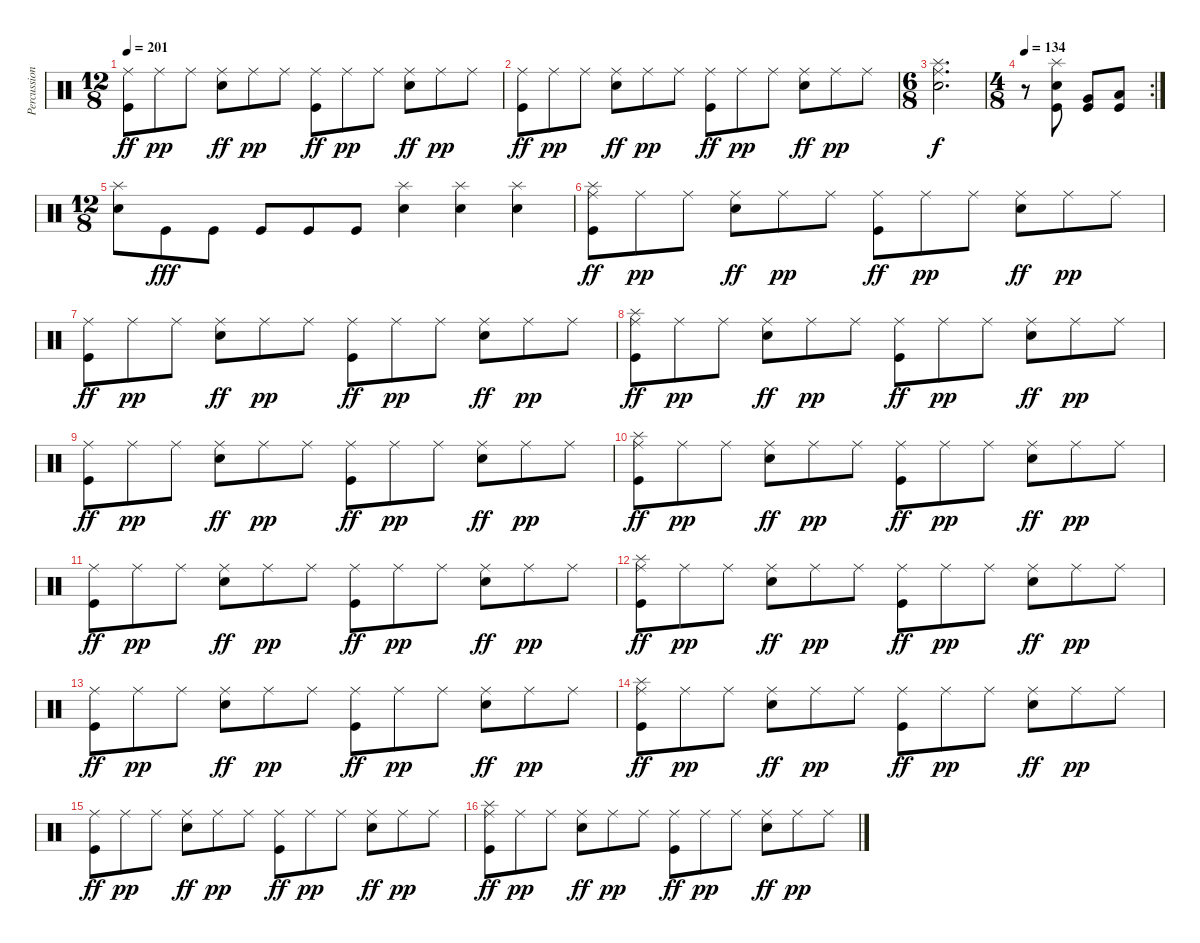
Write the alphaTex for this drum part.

\track ("Percussion" "Percussion") {instrument percussion}
\staff {score}
\articulation defaults
\ts (12 8)
\tempo 201
\clef neutral
\ks c
("Ride (middle)" "Kick (hit)").8{dy ff} "Ride (middle)".8{dy pp} "Ride (middle)".8 ("Ride (middle)" "Snare (hit) 2").8{dy ff} "Ride (middle)".8{dy pp} "Ride (middle)".8 ("Ride (middle)" "Kick (hit)").8{dy ff} "Ride (middle)".8{dy pp} "Ride (middle)".8 ("Ride (middle)" "Snare (hit) 2").8{dy ff} "Ride (middle)".8{dy pp} "Ride (middle)".8 |
("Ride (middle)" "Kick (hit)").8{dy ff} "Ride (middle)".8{dy pp} "Ride (middle)".8 ("Ride (middle)" "Snare (hit) 2").8{dy ff} "Ride (middle)".8{dy pp} "Ride (middle)".8 ("Ride (middle)" "Kick (hit)").8{dy ff} "Ride (middle)".8{dy pp} "Ride (middle)".8 ("Ride (middle)" "Snare (hit) 2").8{dy ff} "Ride (middle)".8{dy pp} "Ride (middle)".8 |
\ts (6 8)
("Ride (middle)" "Splash (hit)" "Snare (hit) 2").2{d dy f} |
\rc 2
\ts (4 8)
\tempo 134
r.8 ("Splash (hit)" "Snare (hit) 2" "Kick (hit)").8 ("Very Low Tom (hit)" "Kick (hit)").8 ("Low Floor Tom (hit)" "Kick (hit)").8 |
\ts (12 8)
("Splash (hit)" "Snare (hit) 2").8 "Kick (hit)".8{dy fff} "Kick (hit)".8 "Kick (hit)".8 "Kick (hit)".8 "Kick (hit)".8 ("Splash (hit)" "Snare (hit) 2").4 ("Splash (hit)" "Snare (hit) 2").4 ("Splash (hit)" "Snare (hit) 2").4 |
("Splash (hit)" "Ride (middle)" "Kick (hit)").8{dy ff} "Ride (middle)".8{dy pp} "Ride (middle)".8 ("Ride (middle)" "Snare (hit) 2").8{dy ff} "Ride (middle)".8{dy pp} "Ride (middle)".8 ("Ride (middle)" "Kick (hit)").8{dy ff} "Ride (middle)".8{dy pp} "Ride (middle)".8 ("Ride (middle)" "Snare (hit) 2").8{dy ff} "Ride (middle)".8{dy pp} "Ride (middle)".8 |
("Ride (middle)" "Kick (hit)").8{dy ff} "Ride (middle)".8{dy pp} "Ride (middle)".8 ("Ride (middle)" "Snare (hit) 2").8{dy ff} "Ride (middle)".8{dy pp} "Ride (middle)".8 ("Ride (middle)" "Kick (hit)").8{dy ff} "Ride (middle)".8{dy pp} "Ride (middle)".8 ("Ride (middle)" "Snare (hit) 2").8{dy ff} "Ride (middle)".8{dy pp} "Ride (middle)".8 |
("Splash (hit)" "Ride (middle)" "Kick (hit)").8{dy ff} "Ride (middle)".8{dy pp} "Ride (middle)".8 ("Ride (middle)" "Snare (hit) 2").8{dy ff} "Ride (middle)".8{dy pp} "Ride (middle)".8 ("Ride (middle)" "Kick (hit)").8{dy ff} "Ride (middle)".8{dy pp} "Ride (middle)".8 ("Ride (middle)" "Snare (hit) 2").8{dy ff} "Ride (middle)".8{dy pp} "Ride (middle)".8 |
("Ride (middle)" "Kick (hit)").8{dy ff} "Ride (middle)".8{dy pp} "Ride (middle)".8 ("Ride (middle)" "Snare (hit) 2").8{dy ff} "Ride (middle)".8{dy pp} "Ride (middle)".8 ("Ride (middle)" "Kick (hit)").8{dy ff} "Ride (middle)".8{dy pp} "Ride (middle)".8 ("Ride (middle)" "Snare (hit) 2").8{dy ff} "Ride (middle)".8{dy pp} "Ride (middle)".8 |
("Splash (hit)" "Ride (middle)" "Kick (hit)").8{dy ff} "Ride (middle)".8{dy pp} "Ride (middle)".8 ("Ride (middle)" "Snare (hit) 2").8{dy ff} "Ride (middle)".8{dy pp} "Ride (middle)".8 ("Ride (middle)" "Kick (hit)").8{dy ff} "Ride (middle)".8{dy pp} "Ride (middle)".8 ("Ride (middle)" "Snare (hit) 2").8{dy ff} "Ride (middle)".8{dy pp} "Ride (middle)".8 |
("Ride (middle)" "Kick (hit)").8{dy ff} "Ride (middle)".8{dy pp} "Ride (middle)".8 ("Ride (middle)" "Snare (hit) 2").8{dy ff} "Ride (middle)".8{dy pp} "Ride (middle)".8 ("Ride (middle)" "Kick (hit)").8{dy ff} "Ride (middle)".8{dy pp} "Ride (middle)".8 ("Ride (middle)" "Snare (hit) 2").8{dy ff} "Ride (middle)".8{dy pp} "Ride (middle)".8 |
("Splash (hit)" "Ride (middle)" "Kick (hit)").8{dy ff} "Ride (middle)".8{dy pp} "Ride (middle)".8 ("Ride (middle)" "Snare (hit) 2").8{dy ff} "Ride (middle)".8{dy pp} "Ride (middle)".8 ("Ride (middle)" "Kick (hit)").8{dy ff} "Ride (middle)".8{dy pp} "Ride (middle)".8 ("Ride (middle)" "Snare (hit) 2").8{dy ff} "Ride (middle)".8{dy pp} "Ride (middle)".8 |
("Ride (middle)" "Kick (hit)").8{dy ff} "Ride (middle)".8{dy pp} "Ride (middle)".8 ("Ride (middle)" "Snare (hit) 2").8{dy ff} "Ride (middle)".8{dy pp} "Ride (middle)".8 ("Ride (middle)" "Kick (hit)").8{dy ff} "Ride (middle)".8{dy pp} "Ride (middle)".8 ("Ride (middle)" "Snare (hit) 2").8{dy ff} "Ride (middle)".8{dy pp} "Ride (middle)".8 |
("Splash (hit)" "Ride (middle)" "Kick (hit)").8{dy ff} "Ride (middle)".8{dy pp} "Ride (middle)".8 ("Ride (middle)" "Snare (hit) 2").8{dy ff} "Ride (middle)".8{dy pp} "Ride (middle)".8 ("Ride (middle)" "Kick (hit)").8{dy ff} "Ride (middle)".8{dy pp} "Ride (middle)".8 ("Ride (middle)" "Snare (hit) 2").8{dy ff} "Ride (middle)".8{dy pp} "Ride (middle)".8 |
("Ride (middle)" "Kick (hit)").8{dy ff} "Ride (middle)".8{dy pp} "Ride (middle)".8 ("Ride (middle)" "Snare (hit) 2").8{dy ff} "Ride (middle)".8{dy pp} "Ride (middle)".8 ("Ride (middle)" "Kick (hit)").8{dy ff} "Ride (middle)".8{dy pp} "Ride (middle)".8 ("Ride (middle)" "Snare (hit) 2").8{dy ff} "Ride (middle)".8{dy pp} "Ride (middle)".8 |
("Splash (hit)" "Ride (middle)" "Kick (hit)").8{dy ff} "Ride (middle)".8{dy pp} "Ride (middle)".8 ("Ride (middle)" "Snare (hit) 2").8{dy ff} "Ride (middle)".8{dy pp} "Ride (middle)".8 ("Ride (middle)" "Kick (hit)").8{dy ff} "Ride (middle)".8{dy pp} "Ride (middle)".8 ("Ride (middle)" "Snare (hit) 2").8{dy ff} "Ride (middle)".8{dy pp} "Ride (middle)".8
